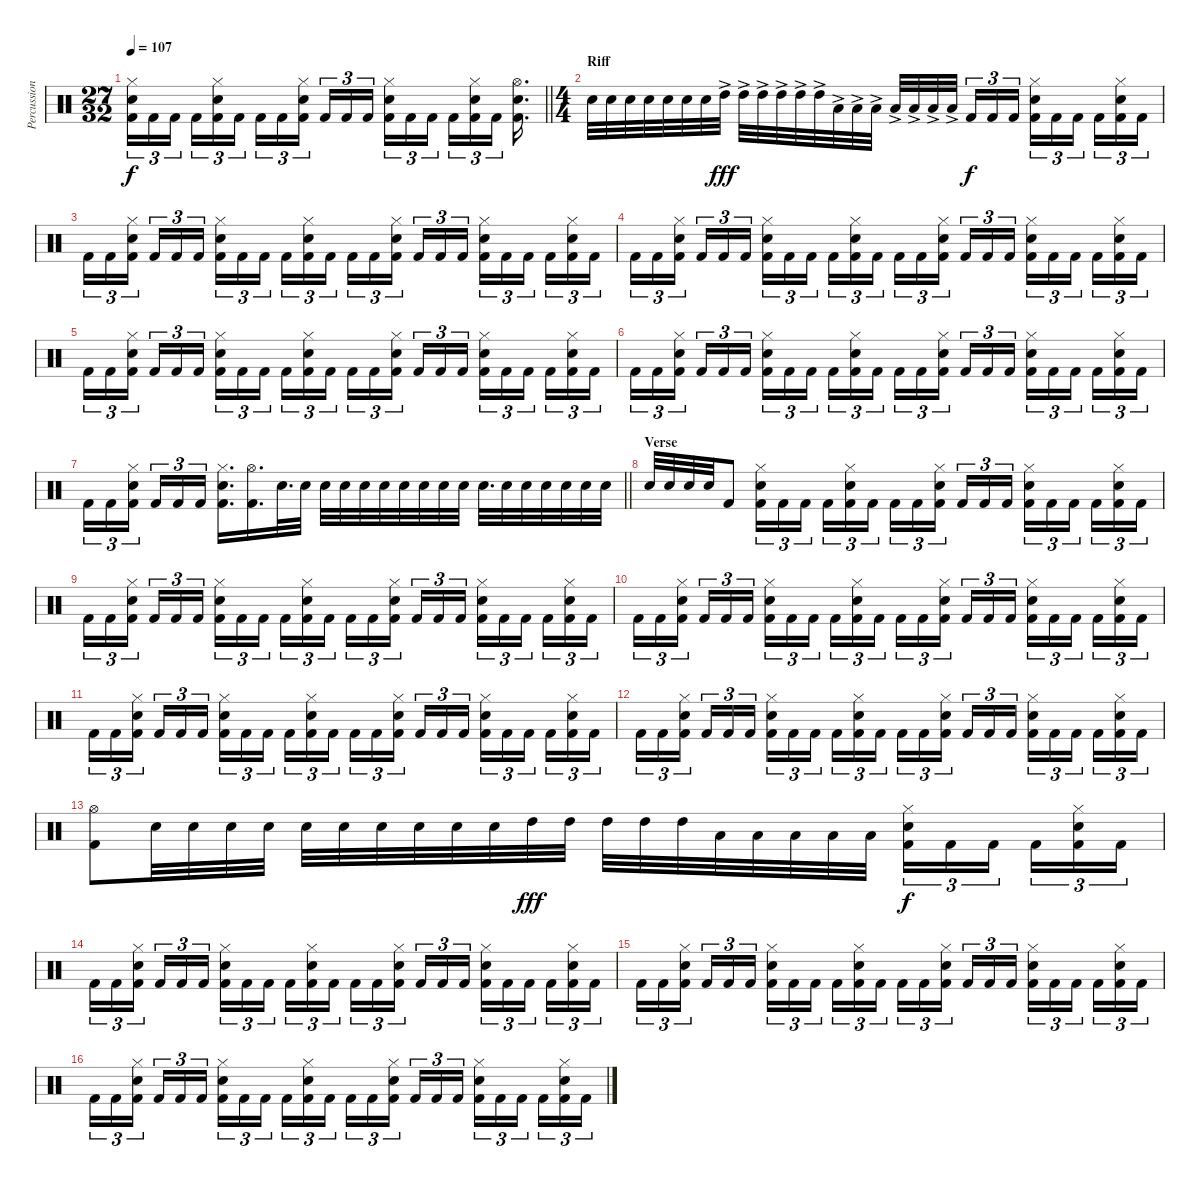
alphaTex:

\track ("Percussion" "Percussion") {instrument percussion}
\staff {score}
\articulation defaults
\ts (27 32)
\tempo 107
\clef neutral
\barLineRight lightlight
\ks c
("Kick (hit) 2" "Electric Snare (hit)" "Hi-Hat (closed)").16{tu (3 2) dy f} "Kick (hit) 2".16{tu (3 2)} "Kick (hit) 2".16{tu (3 2)} "Kick (hit) 2".16{tu (3 2)} ("Kick (hit) 2" "Electric Snare (hit)" "Hi-Hat (closed)").16{tu (3 2)} "Kick (hit) 2".16{tu (3 2)} "Kick (hit) 2".16{tu (3 2)} "Kick (hit) 2".16{tu (3 2)} ("Kick (hit) 2" "Electric Snare (hit)" "Hi-Hat (closed)").16{tu (3 2)} "Kick (hit) 2".16{tu (3 2)} "Kick (hit) 2".16{tu (3 2)} "Kick (hit) 2".16{tu (3 2)} ("Kick (hit) 2" "Electric Snare (hit)" "Hi-Hat (closed)").16{tu (3 2)} "Kick (hit) 2".16{tu (3 2)} "Kick (hit) 2".16{tu (3 2)} "Kick (hit) 2".16{tu (3 2)} ("Kick (hit) 2" "Electric Snare (hit)" "Hi-Hat (closed)").16{tu (3 2)} "Kick (hit) 2".16{tu (3 2)} ("Kick (hit) 2" "Electric Snare (hit)" "Hi-Hat (open)").16{d} |
\ts (4 4)
\section ("" "Riff")
"Electric Snare (hit)".32 "Electric Snare (hit)".32 "Electric Snare (hit)".32 "Electric Snare (hit)".32 "Electric Snare (hit)".32 "Electric Snare (hit)".32 "Electric Snare (hit)".32 "High Tom (hit)"{ac}.32{dy fff} "High Tom (hit)"{ac}.32 "High Tom (hit)"{ac}.32 "High Tom (hit)"{ac}.32 "High Tom (hit)"{ac}.32 "High Tom (hit)"{ac}.32 "Low Tom (hit)"{ac}.32 "Low Tom (hit)"{ac}.32 "Low Tom (hit)"{ac}.32 "Low Tom (hit)"{ac}.32 "Low Tom (hit)"{ac}.32 "Low Tom (hit)"{ac}.32 "Low Tom (hit)"{ac}.32{beam splitsecondary} "Kick (hit) 2".16{tu (3 2) dy f} "Kick (hit) 2".16{tu (3 2)} "Kick (hit) 2".16{tu (3 2)} ("Kick (hit) 2" "Electric Snare (hit)" "Hi-Hat (closed)").16{tu (3 2)} "Kick (hit) 2".16{tu (3 2)} "Kick (hit) 2".16{tu (3 2) beam splitsecondary} "Kick (hit) 2".16{tu (3 2)} ("Kick (hit) 2" "Electric Snare (hit)" "Hi-Hat (closed)").16{tu (3 2)} "Kick (hit) 2".16{tu (3 2)} |
"Kick (hit) 2".16{tu (3 2)} "Kick (hit) 2".16{tu (3 2)} ("Kick (hit) 2" "Electric Snare (hit)" "Hi-Hat (closed)").16{tu (3 2) beam splitsecondary} "Kick (hit) 2".16{tu (3 2)} "Kick (hit) 2".16{tu (3 2)} "Kick (hit) 2".16{tu (3 2)} ("Kick (hit) 2" "Electric Snare (hit)" "Hi-Hat (closed)").16{tu (3 2)} "Kick (hit) 2".16{tu (3 2)} "Kick (hit) 2".16{tu (3 2) beam splitsecondary} "Kick (hit) 2".16{tu (3 2)} ("Kick (hit) 2" "Electric Snare (hit)" "Hi-Hat (closed)").16{tu (3 2)} "Kick (hit) 2".16{tu (3 2)} "Kick (hit) 2".16{tu (3 2)} "Kick (hit) 2".16{tu (3 2)} ("Kick (hit) 2" "Electric Snare (hit)" "Hi-Hat (closed)").16{tu (3 2) beam splitsecondary} "Kick (hit) 2".16{tu (3 2)} "Kick (hit) 2".16{tu (3 2)} "Kick (hit) 2".16{tu (3 2)} ("Kick (hit) 2" "Electric Snare (hit)" "Hi-Hat (closed)").16{tu (3 2)} "Kick (hit) 2".16{tu (3 2)} "Kick (hit) 2".16{tu (3 2) beam splitsecondary} "Kick (hit) 2".16{tu (3 2)} ("Kick (hit) 2" "Hi-Hat (closed)" "Electric Snare (hit)").16{tu (3 2)} "Kick (hit) 2".16{tu (3 2)} |
"Kick (hit) 2".16{tu (3 2)} "Kick (hit) 2".16{tu (3 2)} ("Kick (hit) 2" "Electric Snare (hit)" "Hi-Hat (closed)").16{tu (3 2) beam splitsecondary} "Kick (hit) 2".16{tu (3 2)} "Kick (hit) 2".16{tu (3 2)} "Kick (hit) 2".16{tu (3 2)} ("Kick (hit) 2" "Electric Snare (hit)" "Hi-Hat (closed)").16{tu (3 2)} "Kick (hit) 2".16{tu (3 2)} "Kick (hit) 2".16{tu (3 2) beam splitsecondary} "Kick (hit) 2".16{tu (3 2)} ("Kick (hit) 2" "Electric Snare (hit)" "Hi-Hat (closed)").16{tu (3 2)} "Kick (hit) 2".16{tu (3 2)} "Kick (hit) 2".16{tu (3 2)} "Kick (hit) 2".16{tu (3 2)} ("Kick (hit) 2" "Electric Snare (hit)" "Hi-Hat (closed)").16{tu (3 2) beam splitsecondary} "Kick (hit) 2".16{tu (3 2)} "Kick (hit) 2".16{tu (3 2)} "Kick (hit) 2".16{tu (3 2)} ("Kick (hit) 2" "Electric Snare (hit)" "Hi-Hat (closed)").16{tu (3 2)} "Kick (hit) 2".16{tu (3 2)} "Kick (hit) 2".16{tu (3 2) beam splitsecondary} "Kick (hit) 2".16{tu (3 2)} ("Kick (hit) 2" "Hi-Hat (closed)" "Electric Snare (hit)").16{tu (3 2)} "Kick (hit) 2".16{tu (3 2)} |
"Kick (hit) 2".16{tu (3 2)} "Kick (hit) 2".16{tu (3 2)} ("Kick (hit) 2" "Electric Snare (hit)" "Hi-Hat (closed)").16{tu (3 2) beam splitsecondary} "Kick (hit) 2".16{tu (3 2)} "Kick (hit) 2".16{tu (3 2)} "Kick (hit) 2".16{tu (3 2)} ("Kick (hit) 2" "Electric Snare (hit)" "Hi-Hat (closed)").16{tu (3 2)} "Kick (hit) 2".16{tu (3 2)} "Kick (hit) 2".16{tu (3 2) beam splitsecondary} "Kick (hit) 2".16{tu (3 2)} ("Kick (hit) 2" "Electric Snare (hit)" "Hi-Hat (closed)").16{tu (3 2)} "Kick (hit) 2".16{tu (3 2)} "Kick (hit) 2".16{tu (3 2)} "Kick (hit) 2".16{tu (3 2)} ("Kick (hit) 2" "Electric Snare (hit)" "Hi-Hat (closed)").16{tu (3 2) beam splitsecondary} "Kick (hit) 2".16{tu (3 2)} "Kick (hit) 2".16{tu (3 2)} "Kick (hit) 2".16{tu (3 2)} ("Kick (hit) 2" "Electric Snare (hit)" "Hi-Hat (closed)").16{tu (3 2)} "Kick (hit) 2".16{tu (3 2)} "Kick (hit) 2".16{tu (3 2) beam splitsecondary} "Kick (hit) 2".16{tu (3 2)} ("Kick (hit) 2" "Hi-Hat (closed)" "Electric Snare (hit)").16{tu (3 2)} "Kick (hit) 2".16{tu (3 2)} |
"Kick (hit) 2".16{tu (3 2)} "Kick (hit) 2".16{tu (3 2)} ("Kick (hit) 2" "Electric Snare (hit)" "Hi-Hat (closed)").16{tu (3 2) beam splitsecondary} "Kick (hit) 2".16{tu (3 2)} "Kick (hit) 2".16{tu (3 2)} "Kick (hit) 2".16{tu (3 2)} ("Kick (hit) 2" "Electric Snare (hit)" "Hi-Hat (closed)").16{tu (3 2)} "Kick (hit) 2".16{tu (3 2)} "Kick (hit) 2".16{tu (3 2) beam splitsecondary} "Kick (hit) 2".16{tu (3 2)} ("Kick (hit) 2" "Electric Snare (hit)" "Hi-Hat (closed)").16{tu (3 2)} "Kick (hit) 2".16{tu (3 2)} "Kick (hit) 2".16{tu (3 2)} "Kick (hit) 2".16{tu (3 2)} ("Kick (hit) 2" "Electric Snare (hit)" "Hi-Hat (closed)").16{tu (3 2) beam splitsecondary} "Kick (hit) 2".16{tu (3 2)} "Kick (hit) 2".16{tu (3 2)} "Kick (hit) 2".16{tu (3 2)} ("Kick (hit) 2" "Electric Snare (hit)" "Hi-Hat (closed)").16{tu (3 2)} "Kick (hit) 2".16{tu (3 2)} "Kick (hit) 2".16{tu (3 2) beam splitsecondary} "Kick (hit) 2".16{tu (3 2)} ("Kick (hit) 2" "Hi-Hat (closed)" "Electric Snare (hit)").16{tu (3 2)} "Kick (hit) 2".16{tu (3 2)} |
\barLineRight lightlight "Kick (hit) 2".16{tu (3 2)} "Kick (hit) 2".16{tu (3 2)}
("Kick (hit) 2" "Electric Snare (hit)" "Hi-Hat (closed)").16{tu (3 2) beam splitsecondary} "Kick (hit) 2".16{tu (3 2)} "Kick (hit) 2".16{tu (3 2)} "Kick (hit) 2".16{tu (3 2)} ("Kick (hit) 2" "Electric Snare (hit)" "Hi-Hat (closed)").16{d} ("Kick (hit) 2" "Hi-Hat (open)").16{d} "Electric Snare (hit)".32{d} "Electric Snare (hit)".32 "Electric Snare (hit)".32 "Electric Snare (hit)".32 "Electric Snare (hit)".32 "Electric Snare (hit)".32 "Electric Snare (hit)".32 "Electric Snare (hit)".32 "Electric Snare (hit)".32 "Electric Snare (hit)".32 "Electric Snare (hit)".32{d} "Electric Snare (hit)".32 "Electric Snare (hit)".32 "Electric Snare (hit)".32 "Electric Snare (hit)".32 "Electric Snare (hit)".32 "Electric Snare (hit)".32 |
\section ("" "Verse")
"Electric Snare (hit)".32 "Electric Snare (hit)".32 "Electric Snare (hit)".32 "Electric Snare (hit)".32 "Kick (hit) 2".8 ("Kick (hit) 2" "Electric Snare (hit)" "Hi-Hat (closed)").16{tu (3 2)} "Kick (hit) 2".16{tu (3 2)} "Kick (hit) 2".16{tu (3 2) beam splitsecondary} "Kick (hit) 2".16{tu (3 2)} ("Kick (hit) 2" "Electric Snare (hit)" "Hi-Hat (closed)").16{tu (3 2)} "Kick (hit) 2".16{tu (3 2)} "Kick (hit) 2".16{tu (3 2)} "Kick (hit) 2".16{tu (3 2)} ("Kick (hit) 2" "Electric Snare (hit)" "Hi-Hat (closed)").16{tu (3 2) beam splitsecondary} "Kick (hit) 2".16{tu (3 2)} "Kick (hit) 2".16{tu (3 2)} "Kick (hit) 2".16{tu (3 2)} ("Kick (hit) 2" "Electric Snare (hit)" "Hi-Hat (closed)").16{tu (3 2)} "Kick (hit) 2".16{tu (3 2)} "Kick (hit) 2".16{tu (3 2) beam splitsecondary} "Kick (hit) 2".16{tu (3 2)} ("Kick (hit) 2" "Hi-Hat (closed)" "Electric Snare (hit)").16{tu (3 2)} "Kick (hit) 2".16{tu (3 2)} |
"Kick (hit) 2".16{tu (3 2)} "Kick (hit) 2".16{tu (3 2)} ("Kick (hit) 2" "Electric Snare (hit)" "Hi-Hat (closed)").16{tu (3 2) beam splitsecondary} "Kick (hit) 2".16{tu (3 2)} "Kick (hit) 2".16{tu (3 2)} "Kick (hit) 2".16{tu (3 2)} ("Kick (hit) 2" "Hi-Hat (closed)" "Electric Snare (hit)").16{tu (3 2)} "Kick (hit) 2".16{tu (3 2)} "Kick (hit) 2".16{tu (3 2) beam splitsecondary} "Kick (hit) 2".16{tu (3 2)} ("Kick (hit) 2" "Electric Snare (hit)" "Hi-Hat (closed)").16{tu (3 2)} "Kick (hit) 2".16{tu (3 2)} "Kick (hit) 2".16{tu (3 2)} "Kick (hit) 2".16{tu (3 2)} ("Kick (hit) 2" "Hi-Hat (closed)" "Electric Snare (hit)").16{tu (3 2) beam splitsecondary} "Kick (hit) 2".16{tu (3 2)} "Kick (hit) 2".16{tu (3 2)} "Kick (hit) 2".16{tu (3 2)} ("Kick (hit) 2" "Electric Snare (hit)" "Hi-Hat (closed)").16{tu (3 2)} "Kick (hit) 2".16{tu (3 2)} "Kick (hit) 2".16{tu (3 2) beam splitsecondary} "Kick (hit) 2".16{tu (3 2)} ("Kick (hit) 2" "Hi-Hat (closed)" "Electric Snare (hit)").16{tu (3 2)} "Kick (hit) 2".16{tu (3 2)} |
"Kick (hit) 2".16{tu (3 2)} "Kick (hit) 2".16{tu (3 2)} ("Kick (hit) 2" "Electric Snare (hit)" "Hi-Hat (closed)").16{tu (3 2) beam splitsecondary} "Kick (hit) 2".16{tu (3 2)} "Kick (hit) 2".16{tu (3 2)} "Kick (hit) 2".16{tu (3 2)} ("Kick (hit) 2" "Hi-Hat (closed)" "Electric Snare (hit)").16{tu (3 2)} "Kick (hit) 2".16{tu (3 2)} "Kick (hit) 2".16{tu (3 2) beam splitsecondary} "Kick (hit) 2".16{tu (3 2)} ("Kick (hit) 2" "Electric Snare (hit)" "Hi-Hat (closed)").16{tu (3 2)} "Kick (hit) 2".16{tu (3 2)} "Kick (hit) 2".16{tu (3 2)} "Kick (hit) 2".16{tu (3 2)} ("Kick (hit) 2" "Hi-Hat (closed)" "Electric Snare (hit)").16{tu (3 2) beam splitsecondary} "Kick (hit) 2".16{tu (3 2)} "Kick (hit) 2".16{tu (3 2)} "Kick (hit) 2".16{tu (3 2)} ("Kick (hit) 2" "Electric Snare (hit)" "Hi-Hat (closed)").16{tu (3 2)} "Kick (hit) 2".16{tu (3 2)} "Kick (hit) 2".16{tu (3 2) beam splitsecondary} "Kick (hit) 2".16{tu (3 2)} ("Kick (hit) 2" "Hi-Hat (closed)" "Electric Snare (hit)").16{tu (3 2)} "Kick (hit) 2".16{tu (3 2)} |
"Kick (hit) 2".16{tu (3 2)} "Kick (hit) 2".16{tu (3 2)} ("Kick (hit) 2" "Electric Snare (hit)" "Hi-Hat (closed)").16{tu (3 2) beam splitsecondary} "Kick (hit) 2".16{tu (3 2)} "Kick (hit) 2".16{tu (3 2)} "Kick (hit) 2".16{tu (3 2)} ("Kick (hit) 2" "Hi-Hat (closed)" "Electric Snare (hit)").16{tu (3 2)} "Kick (hit) 2".16{tu (3 2)} "Kick (hit) 2".16{tu (3 2) beam splitsecondary} "Kick (hit) 2".16{tu (3 2)} ("Kick (hit) 2" "Electric Snare (hit)" "Hi-Hat (closed)").16{tu (3 2)} "Kick (hit) 2".16{tu (3 2)} "Kick (hit) 2".16{tu (3 2)} "Kick (hit) 2".16{tu (3 2)} ("Kick (hit) 2" "Hi-Hat (closed)" "Electric Snare (hit)").16{tu (3 2) beam splitsecondary} "Kick (hit) 2".16{tu (3 2)} "Kick (hit) 2".16{tu (3 2)} "Kick (hit) 2".16{tu (3 2)} ("Kick (hit) 2" "Electric Snare (hit)" "Hi-Hat (closed)").16{tu (3 2)} "Kick (hit) 2".16{tu (3 2)} "Kick (hit) 2".16{tu (3 2) beam splitsecondary} "Kick (hit) 2".16{tu (3 2)} ("Kick (hit) 2" "Hi-Hat (closed)" "Electric Snare (hit)").16{tu (3 2)} "Kick (hit) 2".16{tu (3 2)} |
"Kick (hit) 2".16{tu (3 2)} "Kick (hit) 2".16{tu (3 2)} ("Kick (hit) 2" "Electric Snare (hit)" "Hi-Hat (closed)").16{tu (3 2) beam splitsecondary} "Kick (hit) 2".16{tu (3 2)} "Kick (hit) 2".16{tu (3 2)} "Kick (hit) 2".16{tu (3 2)} ("Kick (hit) 2" "Hi-Hat (closed)" "Electric Snare (hit)").16{tu (3 2)} "Kick (hit) 2".16{tu (3 2)} "Kick (hit) 2".16{tu (3 2) beam splitsecondary} "Kick (hit) 2".16{tu (3 2)} ("Kick (hit) 2" "Electric Snare (hit)" "Hi-Hat (closed)").16{tu (3 2)} "Kick (hit) 2".16{tu (3 2)} "Kick (hit) 2".16{tu (3 2)} "Kick (hit) 2".16{tu (3 2)} ("Kick (hit) 2" "Hi-Hat (closed)" "Electric Snare (hit)").16{tu (3 2) beam splitsecondary} "Kick (hit) 2".16{tu (3 2)} "Kick (hit) 2".16{tu (3 2)} "Kick (hit) 2".16{tu (3 2)} ("Kick (hit) 2" "Electric Snare (hit)" "Hi-Hat (closed)").16{tu (3 2)} "Kick (hit) 2".16{tu (3 2)} "Kick (hit) 2".16{tu (3 2) beam splitsecondary} "Kick (hit) 2".16{tu (3 2)} ("Kick (hit) 2" "Hi-Hat (closed)" "Electric Snare (hit)").16{tu (3 2)} "Kick (hit) 2".16{tu (3 2)} |
("Kick (hit) 2" "Hi-Hat (open)").8 "Electric Snare (hit)".32 "Electric Snare (hit)".32 "Electric Snare (hit)".32 "Electric Snare (hit)".32 "Electric Snare (hit)".32 "Electric Snare (hit)".32 "Electric Snare (hit)".32 "Electric Snare (hit)".32 "Electric Snare (hit)".32 "Electric Snare (hit)".32 "High Tom (hit)".32{dy fff} "High Tom (hit)".32 "High Tom (hit)".32 "High Tom (hit)".32 "High Tom (hit)".32 "Low Tom (hit)".32 "Low Tom (hit)".32 "Low Tom (hit)".32 "Low Tom (hit)".32 "Low Tom (hit)".32 ("Kick (hit) 2" "Hi-Hat (closed)" "Electric Snare (hit)").16{tu (3 2) dy f} "Kick (hit) 2".16{tu (3 2)} "Kick (hit) 2".16{tu (3 2) beam splitsecondary} "Kick (hit) 2".16{tu (3 2)} ("Kick (hit) 2" "Electric Snare (hit)" "Hi-Hat (closed)").16{tu (3 2)} "Kick (hit) 2".16{tu (3 2)} |
"Kick (hit) 2".16{tu (3 2)} "Kick (hit) 2".16{tu (3 2)} ("Kick (hit) 2" "Hi-Hat (closed)" "Electric Snare (hit)").16{tu (3 2) beam splitsecondary} "Kick (hit) 2".16{tu (3 2)} "Kick (hit) 2".16{tu (3 2)} "Kick (hit) 2".16{tu (3 2)} ("Kick (hit) 2" "Electric Snare (hit)" "Hi-Hat (closed)").16{tu (3 2)} "Kick (hit) 2".16{tu (3 2)} "Kick (hit) 2".16{tu (3 2) beam splitsecondary} "Kick (hit) 2".16{tu (3 2)} ("Kick (hit) 2" "Hi-Hat (closed)" "Electric Snare (hit)").16{tu (3 2)} "Kick (hit) 2".16{tu (3 2)} "Kick (hit) 2".16{tu (3 2)} "Kick (hit) 2".16{tu (3 2)} ("Kick (hit) 2" "Electric Snare (hit)" "Hi-Hat (closed)").16{tu (3 2) beam splitsecondary} "Kick (hit) 2".16{tu (3 2)} "Kick (hit) 2".16{tu (3 2)} "Kick (hit) 2".16{tu (3 2)} ("Kick (hit) 2" "Hi-Hat (closed)" "Electric Snare (hit)").16{tu (3 2)} "Kick (hit) 2".16{tu (3 2)} "Kick (hit) 2".16{tu (3 2) beam splitsecondary} "Kick (hit) 2".16{tu (3 2)} ("Kick (hit) 2" "Electric Snare (hit)" "Hi-Hat (closed)").16{tu (3 2)} "Kick (hit) 2".16{tu (3 2)} |
"Kick (hit) 2".16{tu (3 2)} "Kick (hit) 2".16{tu (3 2)} ("Kick (hit) 2" "Hi-Hat (closed)" "Electric Snare (hit)").16{tu (3 2) beam splitsecondary} "Kick (hit) 2".16{tu (3 2)} "Kick (hit) 2".16{tu (3 2)} "Kick (hit) 2".16{tu (3 2)} ("Kick (hit) 2" "Electric Snare (hit)" "Hi-Hat (closed)").16{tu (3 2)} "Kick (hit) 2".16{tu (3 2)} "Kick (hit) 2".16{tu (3 2) beam splitsecondary} "Kick (hit) 2".16{tu (3 2)} ("Kick (hit) 2" "Hi-Hat (closed)" "Electric Snare (hit)").16{tu (3 2)} "Kick (hit) 2".16{tu (3 2)} "Kick (hit) 2".16{tu (3 2)} "Kick (hit) 2".16{tu (3 2)} ("Kick (hit) 2" "Electric Snare (hit)" "Hi-Hat (closed)").16{tu (3 2) beam splitsecondary} "Kick (hit) 2".16{tu (3 2)} "Kick (hit) 2".16{tu (3 2)} "Kick (hit) 2".16{tu (3 2)} ("Kick (hit) 2" "Hi-Hat (closed)" "Electric Snare (hit)").16{tu (3 2)} "Kick (hit) 2".16{tu (3 2)} "Kick (hit) 2".16{tu (3 2) beam splitsecondary} "Kick (hit) 2".16{tu (3 2)} ("Kick (hit) 2" "Electric Snare (hit)" "Hi-Hat (closed)").16{tu (3 2)} "Kick (hit) 2".16{tu (3 2)} |
"Kick (hit) 2".16{tu (3 2)} "Kick (hit) 2".16{tu (3 2)} ("Kick (hit) 2" "Hi-Hat (closed)" "Electric Snare (hit)").16{tu (3 2) beam splitsecondary} "Kick (hit) 2".16{tu (3 2)} "Kick (hit) 2".16{tu (3 2)} "Kick (hit) 2".16{tu (3 2)} ("Kick (hit) 2" "Electric Snare (hit)" "Hi-Hat (closed)").16{tu (3 2)} "Kick (hit) 2".16{tu (3 2)} "Kick (hit) 2".16{tu (3 2) beam splitsecondary} "Kick (hit) 2".16{tu (3 2)} ("Kick (hit) 2" "Hi-Hat (closed)" "Electric Snare (hit)").16{tu (3 2)} "Kick (hit) 2".16{tu (3 2)} "Kick (hit) 2".16{tu (3 2)} "Kick (hit) 2".16{tu (3 2)} ("Kick (hit) 2" "Electric Snare (hit)" "Hi-Hat (closed)").16{tu (3 2) beam splitsecondary} "Kick (hit) 2".16{tu (3 2)} "Kick (hit) 2".16{tu (3 2)} "Kick (hit) 2".16{tu (3 2)} ("Kick (hit) 2" "Hi-Hat (closed)" "Electric Snare (hit)").16{tu (3 2)} "Kick (hit) 2".16{tu (3 2)} "Kick (hit) 2".16{tu (3 2) beam splitsecondary} "Kick (hit) 2".16{tu (3 2)} ("Kick (hit) 2" "Electric Snare (hit)" "Hi-Hat (closed)").16{tu (3 2)} "Kick (hit) 2".16{tu (3 2)}
